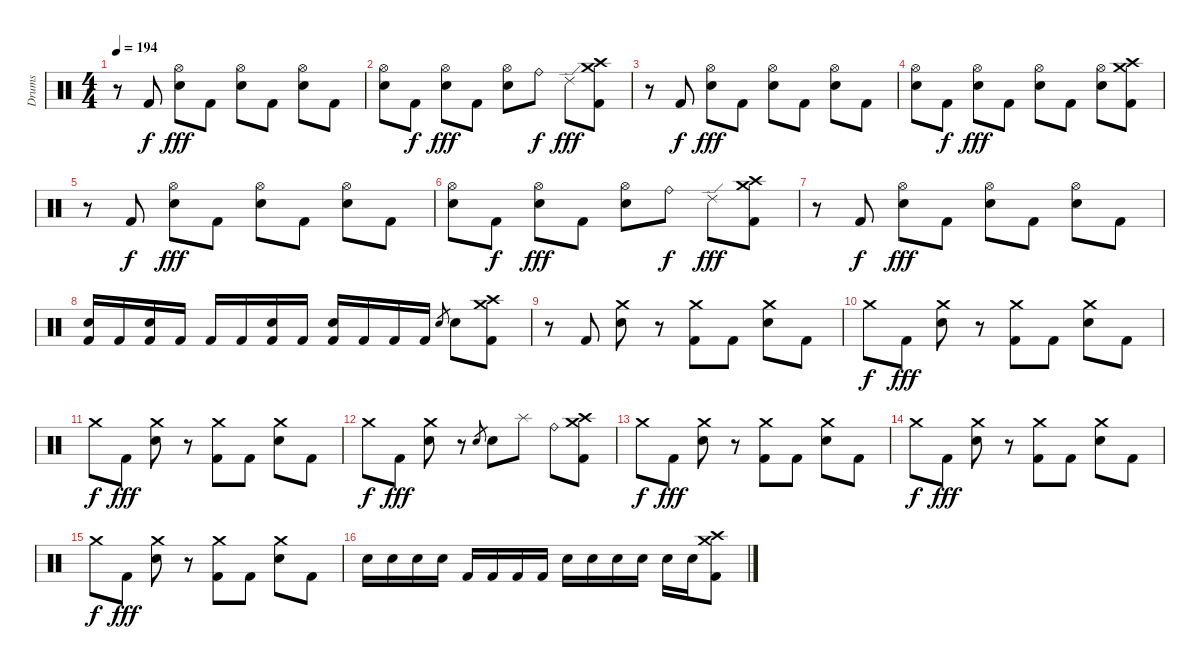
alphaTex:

\track ("Drums" "Drums") {instrument percussion}
\staff {score}
\articulation defaults
\ts (4 4)
\tempo 194
\clef neutral
\ks c
r.8{dy f} "Kick (hit) 2".8 ("Hi-Hat (open)" "Electric Snare (hit)").8{dy fff} "Kick (hit) 2".8 ("Hi-Hat (open)" "Electric Snare (hit)").8 "Kick (hit) 2".8 ("Hi-Hat (open)" "Electric Snare (hit)").8 "Kick (hit) 2".8 |
("Hi-Hat (open)" "Electric Snare (hit)").8 "Kick (hit) 2".8{dy f} ("Hi-Hat (open)" "Electric Snare (hit)").8{dy fff} "Kick (hit) 2".8 ("Hi-Hat (open)" "Electric Snare (hit)").8 "Ride (bell)".8{dy f} "Ride (edge) 2".8{dy fff} ("Crash medium (hit)" "Crash high (hit)" "Kick (hit) 2").8 |
r.8 "Kick (hit) 2".8{dy f} ("Hi-Hat (open)" "Electric Snare (hit)").8{dy fff} "Kick (hit) 2".8 ("Hi-Hat (open)" "Electric Snare (hit)").8 "Kick (hit) 2".8 ("Hi-Hat (open)" "Electric Snare (hit)").8 "Kick (hit) 2".8 |
("Hi-Hat (open)" "Electric Snare (hit)").8 "Kick (hit) 2".8{dy f} ("Hi-Hat (open)" "Electric Snare (hit)").8{dy fff} "Kick (hit) 2".8 ("Hi-Hat (open)" "Electric Snare (hit)").8 "Kick (hit) 2".8 ("Hi-Hat (open)" "Electric Snare (hit)").8 ("Crash medium (hit)" "Crash high (hit)" "Kick (hit) 2").8 |
r.8 "Kick (hit) 2".8{dy f} ("Hi-Hat (open)" "Electric Snare (hit)").8{dy fff} "Kick (hit) 2".8 ("Hi-Hat (open)" "Electric Snare (hit)").8 "Kick (hit) 2".8 ("Hi-Hat (open)" "Electric Snare (hit)").8 "Kick (hit) 2".8 |
("Hi-Hat (open)" "Electric Snare (hit)").8 "Kick (hit) 2".8{dy f} ("Hi-Hat (open)" "Electric Snare (hit)").8{dy fff} "Kick (hit) 2".8 ("Hi-Hat (open)" "Electric Snare (hit)").8 "Ride (bell)".8{dy f} "Ride (edge) 2".8{dy fff} ("Crash medium (hit)" "Crash high (hit)" "Kick (hit) 2").8 |
r.8 "Kick (hit) 2".8{dy f} ("Hi-Hat (open)" "Electric Snare (hit)").8{dy fff} "Kick (hit) 2".8 ("Hi-Hat (open)" "Electric Snare (hit)").8 "Kick (hit) 2".8 ("Hi-Hat (open)" "Electric Snare (hit)").8 "Kick (hit) 2".8 |
("Electric Snare (hit)" "Kick (hit) 2").16 "Kick (hit) 2".16 ("Electric Snare (hit)" "Kick (hit) 2").16 "Kick (hit) 2".16 "Kick (hit) 2".16 "Kick (hit) 2".16 ("Electric Snare (hit)" "Kick (hit) 2").16 "Kick (hit) 2".16 ("Electric Snare (hit)" "Kick (hit) 2").16 "Kick (hit) 2".16 "Kick (hit) 2".16 "Kick (hit) 2".16 "Electric Snare (hit)".8{gr} "Electric Snare (hit)".8 ("Crash medium (hit)" "Crash high (hit)" "Kick (hit) 2").8 |
r.8 "Kick (hit) 2".8 ("Crash medium (hit)" "Electric Snare (hit)").8 r.8 ("Crash medium (hit)" "Kick (hit) 2").8 "Kick (hit) 2".8 ("Crash medium (hit)" "Electric Snare (hit)").8 "Kick (hit) 2".8 |
"Crash medium (hit)".8{dy f} "Kick (hit) 2".8{dy fff} ("Crash medium (hit)" "Electric Snare (hit)").8 r.8 ("Crash medium (hit)" "Kick (hit) 2").8 "Kick (hit) 2".8 ("Crash medium (hit)" "Electric Snare (hit)").8 "Kick (hit) 2".8 |
"Crash medium (hit)".8{dy f} "Kick (hit) 2".8{dy fff} ("Crash medium (hit)" "Electric Snare (hit)").8 r.8 ("Crash medium (hit)" "Kick (hit) 2").8 "Kick (hit) 2".8 ("Crash medium (hit)" "Electric Snare (hit)").8 "Kick (hit) 2".8 |
"Crash medium (hit)".8{dy f} "Kick (hit) 2".8{dy fff} ("Crash medium (hit)" "Electric Snare (hit)").8 r.8 "Electric Snare (hit)".8{gr} "Electric Snare (hit)".8 "Splash (hit)".8 "Ride (bell)".8 ("Crash medium (hit)" "Crash high (hit)" "Kick (hit) 2").8 |
"Crash medium (hit)".8{dy f} "Kick (hit) 2".8{dy fff} ("Crash medium (hit)" "Electric Snare (hit)").8 r.8 ("Crash medium (hit)" "Kick (hit) 2").8 "Kick (hit) 2".8 ("Crash medium (hit)" "Electric Snare (hit)").8 "Kick (hit) 2".8 |
"Crash medium (hit)".8{dy f} "Kick (hit) 2".8{dy fff} ("Crash medium (hit)" "Electric Snare (hit)").8 r.8 ("Crash medium (hit)" "Kick (hit) 2").8 "Kick (hit) 2".8 ("Crash medium (hit)" "Electric Snare (hit)").8 "Kick (hit) 2".8 |
"Crash medium (hit)".8{dy f} "Kick (hit) 2".8{dy fff} ("Crash medium (hit)" "Electric Snare (hit)").8 r.8 ("Crash medium (hit)" "Kick (hit) 2").8 "Kick (hit) 2".8 ("Crash medium (hit)" "Electric Snare (hit)").8 "Kick (hit) 2".8 |
"Electric Snare (hit)".16 "Electric Snare (hit)".16 "Electric Snare (hit)".16 "Electric Snare (hit)".16 "Kick (hit) 2".16 "Kick (hit) 2".16 "Kick (hit) 2".16 "Kick (hit) 2".16 "Electric Snare (hit)".16 "Electric Snare (hit)".16 "Electric Snare (hit)".16 "Electric Snare (hit)".16 "Electric Snare (hit)".16 "Electric Snare (hit)".16 ("Crash medium (hit)" "Crash high (hit)" "Kick (hit) 2").8
